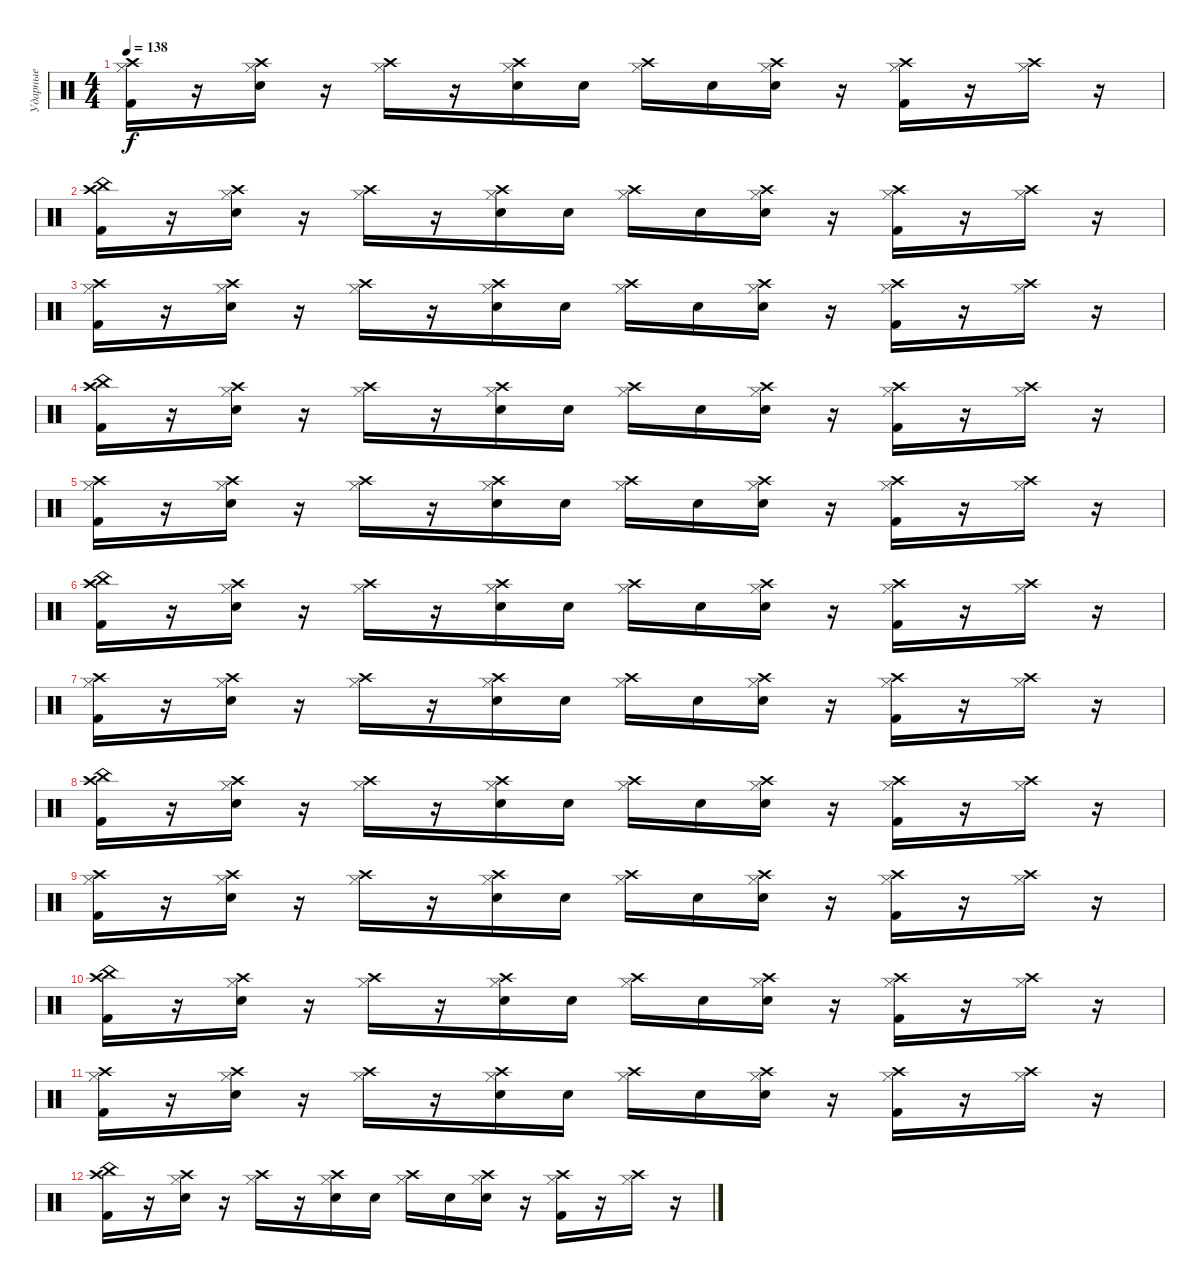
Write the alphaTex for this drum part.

\track ("Ударные" "Ударные") {instrument percussion}
\staff {score}
\articulation defaults
\ts (4 4)
\tempo 138
\clef neutral
\ks c
("Kick (hit) 2" "Hi-Hat (closed)" "Crash high (hit)").16{dy f} r.16 ("Snare (hit) 2" "Hi-Hat (closed)" "Crash high (hit)").16 r.16 ("Hi-Hat (closed)" "Crash high (hit)").16 r.16 ("Snare (hit) 2" "Hi-Hat (closed)" "Crash high (hit)").16 "Snare (hit) 2".16 ("Hi-Hat (closed)" "Crash high (hit)").16 "Snare (hit) 2".16 ("Snare (hit) 2" "Hi-Hat (closed)" "Crash high (hit)").16 r.16 ("Kick (hit) 2" "Hi-Hat (closed)" "Crash high (hit)").16 r.16 ("Hi-Hat (closed)" "Crash high (hit)").16 r.16 |
("Kick (hit) 2" "Crash high (hit)" "China (hit)").16 r.16 ("Snare (hit) 2" "Hi-Hat (closed)" "Crash high (hit)").16 r.16 ("Hi-Hat (closed)" "Crash high (hit)").16 r.16 ("Snare (hit) 2" "Hi-Hat (closed)" "Crash high (hit)").16 "Snare (hit) 2".16 ("Hi-Hat (closed)" "Crash high (hit)").16 "Snare (hit) 2".16 ("Snare (hit) 2" "Hi-Hat (closed)" "Crash high (hit)").16 r.16 ("Kick (hit) 2" "Hi-Hat (closed)" "Crash high (hit)").16 r.16 ("Hi-Hat (closed)" "Crash high (hit)").16 r.16 |
("Kick (hit) 2" "Hi-Hat (closed)" "Crash high (hit)").16 r.16 ("Snare (hit) 2" "Hi-Hat (closed)" "Crash high (hit)").16 r.16 ("Hi-Hat (closed)" "Crash high (hit)").16 r.16 ("Snare (hit) 2" "Hi-Hat (closed)" "Crash high (hit)").16 "Snare (hit) 2".16 ("Hi-Hat (closed)" "Crash high (hit)").16 "Snare (hit) 2".16 ("Snare (hit) 2" "Hi-Hat (closed)" "Crash high (hit)").16 r.16 ("Kick (hit) 2" "Hi-Hat (closed)" "Crash high (hit)").16 r.16 ("Hi-Hat (closed)" "Crash high (hit)").16 r.16 |
("Kick (hit) 2" "Crash high (hit)" "China (hit)").16 r.16 ("Snare (hit) 2" "Hi-Hat (closed)" "Crash high (hit)").16 r.16 ("Hi-Hat (closed)" "Crash high (hit)").16 r.16 ("Snare (hit) 2" "Hi-Hat (closed)" "Crash high (hit)").16 "Snare (hit) 2".16 ("Hi-Hat (closed)" "Crash high (hit)").16 "Snare (hit) 2".16 ("Snare (hit) 2" "Hi-Hat (closed)" "Crash high (hit)").16 r.16 ("Kick (hit) 2" "Hi-Hat (closed)" "Crash high (hit)").16 r.16 ("Hi-Hat (closed)" "Crash high (hit)").16 r.16 |
("Kick (hit) 2" "Hi-Hat (closed)" "Crash high (hit)").16 r.16 ("Snare (hit) 2" "Hi-Hat (closed)" "Crash high (hit)").16 r.16 ("Hi-Hat (closed)" "Crash high (hit)").16 r.16 ("Snare (hit) 2" "Hi-Hat (closed)" "Crash high (hit)").16 "Snare (hit) 2".16 ("Hi-Hat (closed)" "Crash high (hit)").16 "Snare (hit) 2".16 ("Snare (hit) 2" "Hi-Hat (closed)" "Crash high (hit)").16 r.16 ("Kick (hit) 2" "Hi-Hat (closed)" "Crash high (hit)").16 r.16 ("Hi-Hat (closed)" "Crash high (hit)").16 r.16 |
("Kick (hit) 2" "Crash high (hit)" "China (hit)").16 r.16 ("Snare (hit) 2" "Hi-Hat (closed)" "Crash high (hit)").16 r.16 ("Hi-Hat (closed)" "Crash high (hit)").16 r.16 ("Snare (hit) 2" "Hi-Hat (closed)" "Crash high (hit)").16 "Snare (hit) 2".16 ("Hi-Hat (closed)" "Crash high (hit)").16 "Snare (hit) 2".16 ("Snare (hit) 2" "Hi-Hat (closed)" "Crash high (hit)").16 r.16 ("Kick (hit) 2" "Hi-Hat (closed)" "Crash high (hit)").16 r.16 ("Hi-Hat (closed)" "Crash high (hit)").16 r.16 |
("Kick (hit) 2" "Hi-Hat (closed)" "Crash high (hit)").16 r.16 ("Snare (hit) 2" "Hi-Hat (closed)" "Crash high (hit)").16 r.16 ("Hi-Hat (closed)" "Crash high (hit)").16 r.16 ("Snare (hit) 2" "Hi-Hat (closed)" "Crash high (hit)").16 "Snare (hit) 2".16 ("Hi-Hat (closed)" "Crash high (hit)").16 "Snare (hit) 2".16 ("Snare (hit) 2" "Hi-Hat (closed)" "Crash high (hit)").16 r.16 ("Kick (hit) 2" "Hi-Hat (closed)" "Crash high (hit)").16 r.16 ("Hi-Hat (closed)" "Crash high (hit)").16 r.16 |
("Kick (hit) 2" "Crash high (hit)" "China (hit)").16 r.16 ("Snare (hit) 2" "Hi-Hat (closed)" "Crash high (hit)").16 r.16 ("Hi-Hat (closed)" "Crash high (hit)").16 r.16 ("Snare (hit) 2" "Hi-Hat (closed)" "Crash high (hit)").16 "Snare (hit) 2".16 ("Hi-Hat (closed)" "Crash high (hit)").16 "Snare (hit) 2".16 ("Snare (hit) 2" "Hi-Hat (closed)" "Crash high (hit)").16 r.16 ("Kick (hit) 2" "Hi-Hat (closed)" "Crash high (hit)").16 r.16 ("Hi-Hat (closed)" "Crash high (hit)").16 r.16 |
("Kick (hit) 2" "Hi-Hat (closed)" "Crash high (hit)").16 r.16 ("Snare (hit) 2" "Hi-Hat (closed)" "Crash high (hit)").16 r.16 ("Hi-Hat (closed)" "Crash high (hit)").16 r.16 ("Snare (hit) 2" "Hi-Hat (closed)" "Crash high (hit)").16 "Snare (hit) 2".16 ("Hi-Hat (closed)" "Crash high (hit)").16 "Snare (hit) 2".16 ("Snare (hit) 2" "Hi-Hat (closed)" "Crash high (hit)").16 r.16 ("Kick (hit) 2" "Hi-Hat (closed)" "Crash high (hit)").16 r.16 ("Hi-Hat (closed)" "Crash high (hit)").16 r.16 |
("Kick (hit) 2" "Crash high (hit)" "China (hit)").16 r.16 ("Snare (hit) 2" "Hi-Hat (closed)" "Crash high (hit)").16 r.16 ("Hi-Hat (closed)" "Crash high (hit)").16 r.16 ("Snare (hit) 2" "Hi-Hat (closed)" "Crash high (hit)").16 "Snare (hit) 2".16 ("Hi-Hat (closed)" "Crash high (hit)").16 "Snare (hit) 2".16 ("Snare (hit) 2" "Hi-Hat (closed)" "Crash high (hit)").16 r.16 ("Kick (hit) 2" "Hi-Hat (closed)" "Crash high (hit)").16 r.16 ("Hi-Hat (closed)" "Crash high (hit)").16 r.16 |
("Kick (hit) 2" "Hi-Hat (closed)" "Crash high (hit)").16 r.16 ("Snare (hit) 2" "Hi-Hat (closed)" "Crash high (hit)").16 r.16 ("Hi-Hat (closed)" "Crash high (hit)").16 r.16 ("Snare (hit) 2" "Hi-Hat (closed)" "Crash high (hit)").16 "Snare (hit) 2".16 ("Hi-Hat (closed)" "Crash high (hit)").16 "Snare (hit) 2".16 ("Snare (hit) 2" "Hi-Hat (closed)" "Crash high (hit)").16 r.16 ("Kick (hit) 2" "Hi-Hat (closed)" "Crash high (hit)").16 r.16 ("Hi-Hat (closed)" "Crash high (hit)").16 r.16 |
("Kick (hit) 2" "Crash high (hit)" "China (hit)").16 r.16 ("Snare (hit) 2" "Hi-Hat (closed)" "Crash high (hit)").16 r.16 ("Hi-Hat (closed)" "Crash high (hit)").16 r.16 ("Snare (hit) 2" "Hi-Hat (closed)" "Crash high (hit)").16 "Snare (hit) 2".16 ("Hi-Hat (closed)" "Crash high (hit)").16 "Snare (hit) 2".16 ("Snare (hit) 2" "Hi-Hat (closed)" "Crash high (hit)").16 r.16 ("Kick (hit) 2" "Hi-Hat (closed)" "Crash high (hit)").16 r.16 ("Hi-Hat (closed)" "Crash high (hit)").16 r.16
